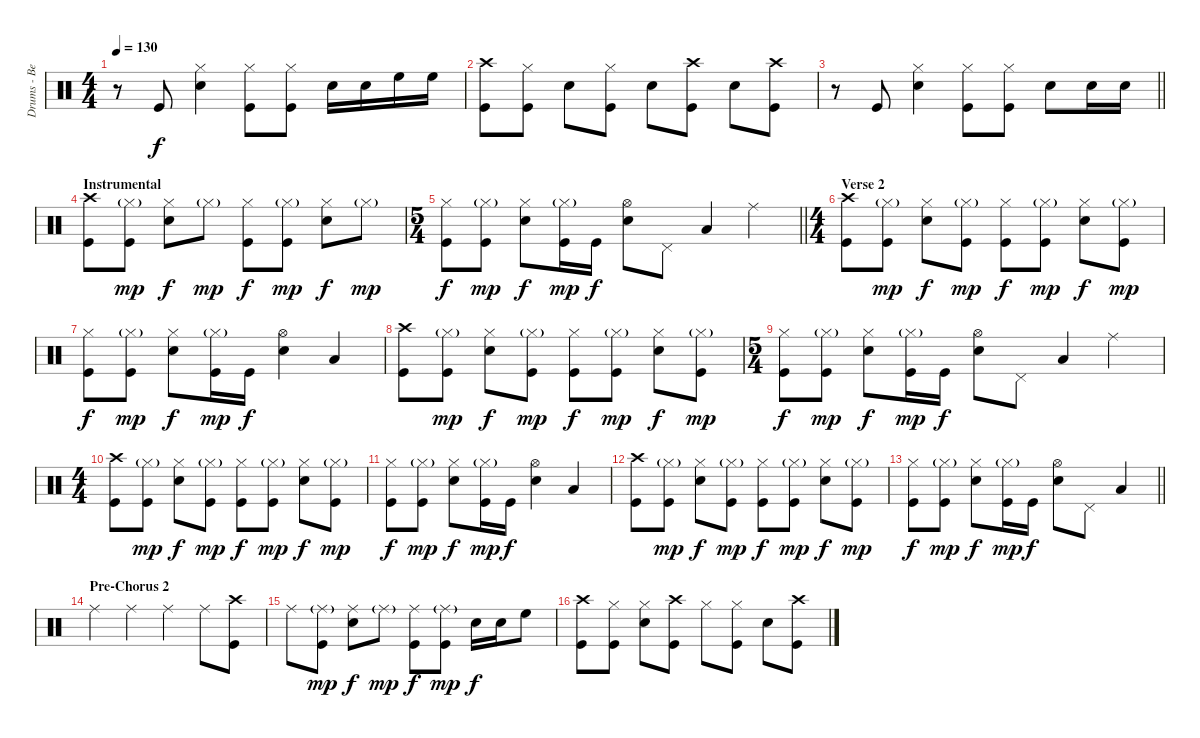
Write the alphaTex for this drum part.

\track ("Drums - Ben Johnston" "Drums - Be") {instrument percussion}
\staff {score}
\articulation defaults
\ts (4 4)
\tempo 130
\clef neutral
\ks c
r.8{dy f} "Kick (hit)".8 ("Hi-Hat (closed)" "Snare (hit) 2").4 ("Hi-Hat (closed)" "Kick (hit)").8 ("Hi-Hat (closed)" "Kick (hit)").8 "Snare (hit) 2".16 "Snare (hit) 2".16 "High Floor Tom (hit)".16 "High Floor Tom (hit)".16 |
("Crash high (hit)" "Kick (hit)").8 ("Hi-Hat (closed)" "Kick (hit)").8 "Snare (hit) 2".8 ("Hi-Hat (closed)" "Kick (hit)").8 "Snare (hit) 2".8 ("Crash high (hit)" "Kick (hit)").8 "Snare (hit) 2".8 ("Crash high (hit)" "Kick (hit)").8 |
\barLineRight lightlight
r.8 "Kick (hit)".8 ("Hi-Hat (closed)" "Snare (hit) 2").4 ("Hi-Hat (closed)" "Kick (hit)").8 ("Hi-Hat (closed)" "Kick (hit)").8 "Snare (hit) 2".8 "Snare (hit) 2".16 "Snare (hit) 2".16 |
\section ("" "Instrumental")
("Crash high (hit)" "Kick (hit)").8 ("Hi-Hat (closed)"{g} "Kick (hit)").8{dy mp} ("Hi-Hat (closed)" "Snare (hit) 2").8{dy f} "Hi-Hat (closed)"{g}.8{dy mp} ("Hi-Hat (closed)" "Kick (hit)").8{dy f} ("Hi-Hat (closed)"{g} "Kick (hit)").8{dy mp} ("Hi-Hat (closed)" "Snare (hit) 2").8{dy f} "Hi-Hat (closed)"{g}.8{dy mp} |
\ts (5 4)
\barLineRight lightlight
("Hi-Hat (closed)" "Kick (hit)").8{dy f} ("Hi-Hat (closed)"{g} "Kick (hit)").8{dy mp} ("Hi-Hat (closed)" "Snare (hit) 2").8{dy f} ("Hi-Hat (closed)"{g} "Kick (hit)").16{dy mp} "Kick (hit)".16{dy f} ("Hi-Hat (open)" "Snare (hit) 2").8 "Pedal Hi-Hat (hit)".8 "Low Tom (hit)".4 "Ride (middle)".4 |
\ts (4 4)
\section ("" "Verse 2")
("Crash high (hit)" "Kick (hit)").8 ("Hi-Hat (closed)"{g} "Kick (hit)").8{dy mp} ("Hi-Hat (closed)" "Snare (hit) 2").8{dy f} ("Hi-Hat (closed)"{g} "Kick (hit)").8{dy mp} ("Hi-Hat (closed)" "Kick (hit)").8{dy f} ("Hi-Hat (closed)"{g} "Kick (hit)").8{dy mp} ("Hi-Hat (closed)" "Snare (hit) 2").8{dy f} ("Hi-Hat (closed)"{g} "Kick (hit)").8{dy mp} |
("Hi-Hat (closed)" "Kick (hit)").8{dy f} ("Hi-Hat (closed)"{g} "Kick (hit)").8{dy mp} ("Hi-Hat (closed)" "Snare (hit) 2").8{dy f} ("Hi-Hat (closed)"{g} "Kick (hit)").16{dy mp} "Kick (hit)".16{dy f} ("Hi-Hat (open)" "Snare (hit) 2").4 "Low Tom (hit)".4 |
("Crash high (hit)" "Kick (hit)").8 ("Hi-Hat (closed)"{g} "Kick (hit)").8{dy mp} ("Hi-Hat (closed)" "Snare (hit) 2").8{dy f} ("Hi-Hat (closed)"{g} "Kick (hit)").8{dy mp} ("Hi-Hat (closed)" "Kick (hit)").8{dy f} ("Hi-Hat (closed)"{g} "Kick (hit)").8{dy mp} ("Hi-Hat (closed)" "Snare (hit) 2").8{dy f} ("Hi-Hat (closed)"{g} "Kick (hit)").8{dy mp} |
\ts (5 4)
("Hi-Hat (closed)" "Kick (hit)").8{dy f} ("Hi-Hat (closed)"{g} "Kick (hit)").8{dy mp} ("Hi-Hat (closed)" "Snare (hit) 2").8{dy f} ("Hi-Hat (closed)"{g} "Kick (hit)").16{dy mp} "Kick (hit)".16{dy f} ("Hi-Hat (open)" "Snare (hit) 2").8 "Pedal Hi-Hat (hit)".8 "Low Tom (hit)".4 "Ride (middle)".4 |
\ts (4 4)
("Crash high (hit)" "Kick (hit)").8 ("Hi-Hat (closed)"{g} "Kick (hit)").8{dy mp} ("Hi-Hat (closed)" "Snare (hit) 2").8{dy f} ("Hi-Hat (closed)"{g} "Kick (hit)").8{dy mp} ("Hi-Hat (closed)" "Kick (hit)").8{dy f} ("Hi-Hat (closed)"{g} "Kick (hit)").8{dy mp} ("Hi-Hat (closed)" "Snare (hit) 2").8{dy f} ("Hi-Hat (closed)"{g} "Kick (hit)").8{dy mp} |
("Hi-Hat (closed)" "Kick (hit)").8{dy f} ("Hi-Hat (closed)"{g} "Kick (hit)").8{dy mp} ("Hi-Hat (closed)" "Snare (hit) 2").8{dy f} ("Hi-Hat (closed)"{g} "Kick (hit)").16{dy mp} "Kick (hit)".16{dy f} ("Hi-Hat (open)" "Snare (hit) 2").4 "Low Tom (hit)".4 |
("Crash high (hit)" "Kick (hit)").8 ("Hi-Hat (closed)"{g} "Kick (hit)").8{dy mp} ("Hi-Hat (closed)" "Snare (hit) 2").8{dy f} ("Hi-Hat (closed)"{g} "Kick (hit)").8{dy mp} ("Hi-Hat (closed)" "Kick (hit)").8{dy f} ("Hi-Hat (closed)"{g} "Kick (hit)").8{dy mp} ("Hi-Hat (closed)" "Snare (hit) 2").8{dy f} ("Hi-Hat (closed)"{g} "Kick (hit)").8{dy mp} |
\barLineRight lightlight
("Hi-Hat (closed)" "Kick (hit)").8{dy f} ("Hi-Hat (closed)"{g} "Kick (hit)").8{dy mp} ("Hi-Hat (closed)" "Snare (hit) 2").8{dy f} ("Hi-Hat (closed)"{g} "Kick (hit)").16{dy mp} "Kick (hit)".16{dy f} ("Hi-Hat (open)" "Snare (hit) 2").8 "Pedal Hi-Hat (hit)".8 "Low Tom (hit)".4 |
\section ("" "Pre-Chorus 2")
"Ride (middle)".4 "Ride (middle)".4 "Ride (middle)".4 "Ride (middle)".8 ("Crash high (hit)" "Kick (hit)").8 |
"Ride (middle)".8 ("Ride (middle)"{g} "Kick (hit)").8{dy mp} ("Ride (middle)" "Snare (hit) 2").8{dy f} "Ride (middle)"{g}.8{dy mp} ("Ride (middle)" "Kick (hit)").8{dy f} ("Ride (middle)"{g} "Kick (hit)").8{dy mp} "Snare (hit) 2".16{dy f} "Snare (hit) 2".16 "High Floor Tom (hit)".8 |
("Crash high (hit)" "Kick (hit)").8 ("Hi-Hat (closed)" "Kick (hit)").8 ("Hi-Hat (closed)" "Snare (hit) 2").8 ("Crash high (hit)" "Kick (hit)").8 "Hi-Hat (closed)".8 ("Hi-Hat (closed)" "Kick (hit)").8 "Snare (hit) 2".8 ("Crash high (hit)" "Kick (hit)").8
